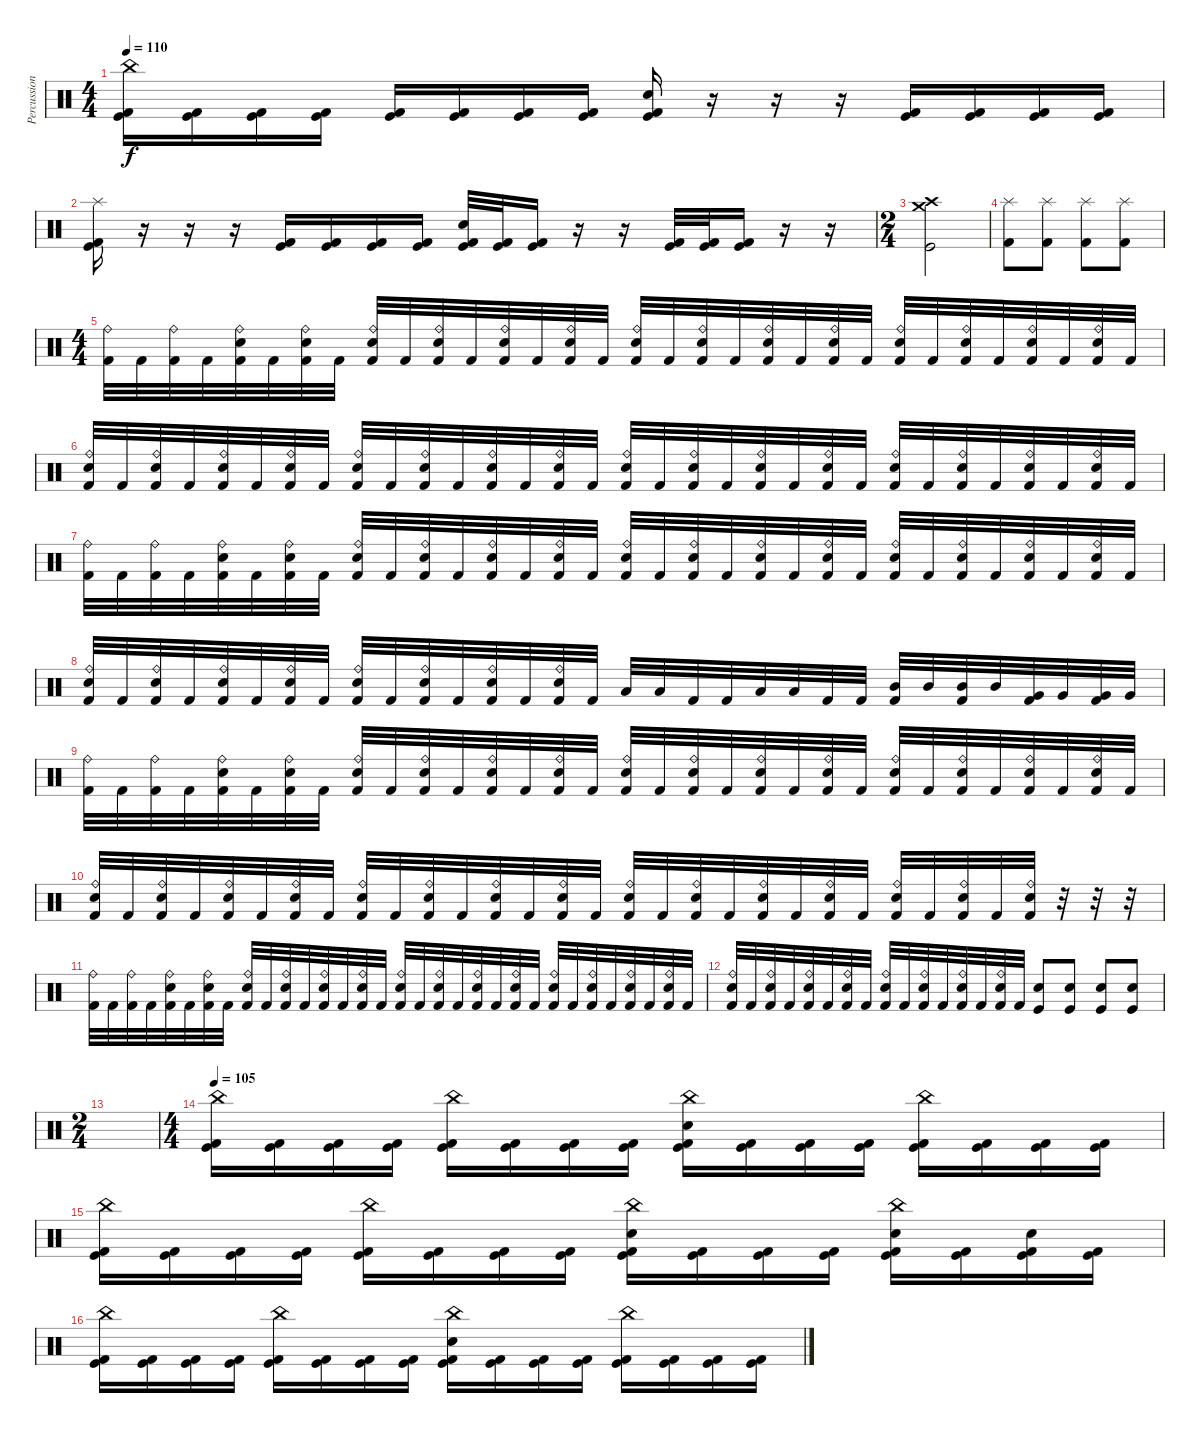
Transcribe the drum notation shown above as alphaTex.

\track ("Percussion" "Percussion") {instrument percussion}
\staff {score}
\articulation defaults
\ts (4 4)
\tempo 110
\clef neutral
\ks c
("China (hit)" "Kick (hit)" "Kick (hit) 2").16{dy f} ("Kick (hit)" "Kick (hit) 2").16 ("Kick (hit)" "Kick (hit) 2").16 ("Kick (hit)" "Kick (hit) 2").16 ("Kick (hit)" "Kick (hit) 2").16 ("Kick (hit)" "Kick (hit) 2").16 ("Kick (hit)" "Kick (hit) 2").16 ("Kick (hit)" "Kick (hit) 2").16 ("Snare (hit) 2" "Kick (hit)" "Kick (hit) 2").16 r.16 r.16 r.16 ("Kick (hit)" "Kick (hit) 2").16 ("Kick (hit)" "Kick (hit) 2").16 ("Kick (hit)" "Kick (hit) 2").16 ("Kick (hit)" "Kick (hit) 2").16 |
("Splash (hit)" "Kick (hit)" "Kick (hit) 2").16 r.16 r.16 r.16 ("Kick (hit)" "Kick (hit) 2").16 ("Kick (hit)" "Kick (hit) 2").16 ("Kick (hit)" "Kick (hit) 2").16 ("Kick (hit)" "Kick (hit) 2").16 ("Kick (hit)" "Snare (hit) 2" "Kick (hit) 2").32 ("Kick (hit)" "Kick (hit) 2").32 ("Kick (hit)" "Kick (hit) 2").16 r.16 r.16 ("Kick (hit)" "Kick (hit) 2").32 ("Kick (hit)" "Kick (hit) 2").32 ("Kick (hit)" "Kick (hit) 2").16 r.16 r.16 |
\ts (2 4)
("Crash medium (hit)" "Crash high (hit)" "Kick (hit)").2 |
("Splash (hit)" "Kick (hit) 2").8 ("Splash (hit)" "Kick (hit) 2").8 ("Splash (hit)" "Kick (hit) 2").8 ("Splash (hit)" "Kick (hit) 2").8 |
\ts (4 4)
("Ride (bell)" "Kick (hit) 2").32 "Kick (hit) 2".32 ("Ride (bell)" "Kick (hit) 2").32 "Kick (hit) 2".32 ("Ride (bell)" "Electric Snare (hit)" "Kick (hit) 2").32 "Kick (hit) 2".32 ("Ride (bell)" "Electric Snare (hit)" "Kick (hit) 2").32 "Kick (hit) 2".32 ("Ride (bell)" "Electric Snare (hit)" "Kick (hit) 2").32 "Kick (hit) 2".32 ("Ride (bell)" "Electric Snare (hit)" "Kick (hit) 2").32 "Kick (hit) 2".32 ("Ride (bell)" "Electric Snare (hit)" "Kick (hit) 2").32 "Kick (hit) 2".32 ("Ride (bell)" "Electric Snare (hit)" "Kick (hit) 2").32 "Kick (hit) 2".32 ("Ride (bell)" "Electric Snare (hit)" "Kick (hit) 2").32 "Kick (hit) 2".32 ("Ride (bell)" "Electric Snare (hit)" "Kick (hit) 2").32 "Kick (hit) 2".32 ("Ride (bell)" "Electric Snare (hit)" "Kick (hit) 2").32 "Kick (hit) 2".32 ("Ride (bell)" "Electric Snare (hit)" "Kick (hit) 2").32 "Kick (hit) 2".32 ("Ride (bell)" "Electric Snare (hit)" "Kick (hit) 2").32 "Kick (hit) 2".32 ("Ride (bell)" "Electric Snare (hit)" "Kick (hit) 2").32 "Kick (hit) 2".32 ("Ride (bell)" "Electric Snare (hit)" "Kick (hit) 2").32 "Kick (hit) 2".32 ("Ride (bell)" "Electric Snare (hit)" "Kick (hit) 2").32 "Kick (hit) 2".32 |
("Ride (bell)" "Electric Snare (hit)" "Kick (hit) 2").32 "Kick (hit) 2".32 ("Ride (bell)" "Electric Snare (hit)" "Kick (hit) 2").32 "Kick (hit) 2".32 ("Ride (bell)" "Electric Snare (hit)" "Kick (hit) 2").32 "Kick (hit) 2".32 ("Ride (bell)" "Electric Snare (hit)" "Kick (hit) 2").32 "Kick (hit) 2".32 ("Ride (bell)" "Electric Snare (hit)" "Kick (hit) 2").32 "Kick (hit) 2".32 ("Ride (bell)" "Electric Snare (hit)" "Kick (hit) 2").32 "Kick (hit) 2".32 ("Ride (bell)" "Electric Snare (hit)" "Kick (hit) 2").32 "Kick (hit) 2".32 ("Ride (bell)" "Electric Snare (hit)" "Kick (hit) 2").32 "Kick (hit) 2".32 ("Ride (bell)" "Electric Snare (hit)" "Kick (hit) 2").32 "Kick (hit) 2".32 ("Ride (bell)" "Electric Snare (hit)" "Kick (hit) 2").32 "Kick (hit) 2".32 ("Ride (bell)" "Electric Snare (hit)" "Kick (hit) 2").32 "Kick (hit) 2".32 ("Ride (bell)" "Electric Snare (hit)" "Kick (hit) 2").32 "Kick (hit) 2".32 ("Ride (bell)" "Electric Snare (hit)" "Kick (hit) 2").32 "Kick (hit) 2".32 ("Ride (bell)" "Electric Snare (hit)" "Kick (hit) 2").32 "Kick (hit) 2".32 ("Ride (bell)" "Electric Snare (hit)" "Kick (hit) 2").32 "Kick (hit) 2".32 ("Ride (bell)" "Electric Snare (hit)" "Kick (hit) 2").32 "Kick (hit) 2".32 |
("Ride (bell)" "Kick (hit) 2").32 "Kick (hit) 2".32 ("Ride (bell)" "Kick (hit) 2").32 "Kick (hit) 2".32 ("Ride (bell)" "Electric Snare (hit)" "Kick (hit) 2").32 "Kick (hit) 2".32 ("Ride (bell)" "Electric Snare (hit)" "Kick (hit) 2").32 "Kick (hit) 2".32 ("Ride (bell)" "Electric Snare (hit)" "Kick (hit) 2").32 "Kick (hit) 2".32 ("Ride (bell)" "Electric Snare (hit)" "Kick (hit) 2").32 "Kick (hit) 2".32 ("Ride (bell)" "Electric Snare (hit)" "Kick (hit) 2").32 "Kick (hit) 2".32 ("Ride (bell)" "Electric Snare (hit)" "Kick (hit) 2").32 "Kick (hit) 2".32 ("Ride (bell)" "Electric Snare (hit)" "Kick (hit) 2").32 "Kick (hit) 2".32 ("Ride (bell)" "Electric Snare (hit)" "Kick (hit) 2").32 "Kick (hit) 2".32 ("Ride (bell)" "Electric Snare (hit)" "Kick (hit) 2").32 "Kick (hit) 2".32 ("Ride (bell)" "Electric Snare (hit)" "Kick (hit) 2").32 "Kick (hit) 2".32 ("Ride (bell)" "Electric Snare (hit)" "Kick (hit) 2").32 "Kick (hit) 2".32 ("Ride (bell)" "Electric Snare (hit)" "Kick (hit) 2").32 "Kick (hit) 2".32 ("Ride (bell)" "Electric Snare (hit)" "Kick (hit) 2").32 "Kick (hit) 2".32 ("Ride (bell)" "Electric Snare (hit)" "Kick (hit) 2").32 "Kick (hit) 2".32 |
("Ride (bell)" "Electric Snare (hit)" "Kick (hit) 2").32 "Kick (hit) 2".32 ("Ride (bell)" "Electric Snare (hit)" "Kick (hit) 2").32 "Kick (hit) 2".32 ("Ride (bell)" "Electric Snare (hit)" "Kick (hit) 2").32 "Kick (hit) 2".32 ("Ride (bell)" "Electric Snare (hit)" "Kick (hit) 2").32 "Kick (hit) 2".32 ("Ride (bell)" "Electric Snare (hit)" "Kick (hit) 2").32 "Kick (hit) 2".32 ("Ride (bell)" "Electric Snare (hit)" "Kick (hit) 2").32 "Kick (hit) 2".32 ("Ride (bell)" "Electric Snare (hit)" "Kick (hit) 2").32 "Kick (hit) 2".32 ("Ride (bell)" "Electric Snare (hit)" "Kick (hit) 2").32 "Kick (hit) 2".32 "Low Tom (hit)".32 "Low Tom (hit)".32 "Kick (hit) 2".32 "Kick (hit) 2".32 "Low Tom (hit)".32 "Low Tom (hit)".32 "Kick (hit) 2".32 "Kick (hit) 2".32 ("Mid Tom (hit)" "Kick (hit) 2").32 "Mid Tom (hit)".32 ("Mid Tom (hit)" "Kick (hit) 2").32 "Mid Tom (hit)".32 ("Very Low Tom (hit)" "Kick (hit) 2").32 "Very Low Tom (hit)".32 ("Very Low Tom (hit)" "Kick (hit) 2").32 "Very Low Tom (hit)".32 |
("Ride (bell)" "Kick (hit) 2").32 "Kick (hit) 2".32 ("Ride (bell)" "Kick (hit) 2").32 "Kick (hit) 2".32 ("Ride (bell)" "Electric Snare (hit)" "Kick (hit) 2").32 "Kick (hit) 2".32 ("Ride (bell)" "Electric Snare (hit)" "Kick (hit) 2").32 "Kick (hit) 2".32 ("Ride (bell)" "Electric Snare (hit)" "Kick (hit) 2").32 "Kick (hit) 2".32 ("Ride (bell)" "Electric Snare (hit)" "Kick (hit) 2").32 "Kick (hit) 2".32 ("Ride (bell)" "Electric Snare (hit)" "Kick (hit) 2").32 "Kick (hit) 2".32 ("Ride (bell)" "Electric Snare (hit)" "Kick (hit) 2").32 "Kick (hit) 2".32 ("Ride (bell)" "Electric Snare (hit)" "Kick (hit) 2").32 "Kick (hit) 2".32 ("Ride (bell)" "Electric Snare (hit)" "Kick (hit) 2").32 "Kick (hit) 2".32 ("Ride (bell)" "Electric Snare (hit)" "Kick (hit) 2").32 "Kick (hit) 2".32 ("Ride (bell)" "Electric Snare (hit)" "Kick (hit) 2").32 "Kick (hit) 2".32 ("Ride (bell)" "Electric Snare (hit)" "Kick (hit) 2").32 "Kick (hit) 2".32 ("Ride (bell)" "Electric Snare (hit)" "Kick (hit) 2").32 "Kick (hit) 2".32 ("Ride (bell)" "Electric Snare (hit)" "Kick (hit) 2").32 "Kick (hit) 2".32 ("Ride (bell)" "Electric Snare (hit)" "Kick (hit) 2").32 "Kick (hit) 2".32 |
("Ride (bell)" "Electric Snare (hit)" "Kick (hit) 2").32 "Kick (hit) 2".32 ("Ride (bell)" "Electric Snare (hit)" "Kick (hit) 2").32 "Kick (hit) 2".32 ("Ride (bell)" "Electric Snare (hit)" "Kick (hit) 2").32 "Kick (hit) 2".32 ("Ride (bell)" "Electric Snare (hit)" "Kick (hit) 2").32 "Kick (hit) 2".32 ("Ride (bell)" "Electric Snare (hit)" "Kick (hit) 2").32 "Kick (hit) 2".32 ("Ride (bell)" "Electric Snare (hit)" "Kick (hit) 2").32 "Kick (hit) 2".32 ("Ride (bell)" "Electric Snare (hit)" "Kick (hit) 2").32 "Kick (hit) 2".32 ("Ride (bell)" "Electric Snare (hit)" "Kick (hit) 2").32 "Kick (hit) 2".32 ("Ride (bell)" "Electric Snare (hit)" "Kick (hit) 2").32 "Kick (hit) 2".32 ("Ride (bell)" "Electric Snare (hit)" "Kick (hit) 2").32 "Kick (hit) 2".32 ("Ride (bell)" "Electric Snare (hit)" "Kick (hit) 2").32 "Kick (hit) 2".32 ("Ride (bell)" "Electric Snare (hit)" "Kick (hit) 2").32 "Kick (hit) 2".32 ("Ride (bell)" "Electric Snare (hit)" "Kick (hit) 2").32 "Kick (hit) 2".32 ("Ride (bell)" "Electric Snare (hit)" "Kick (hit) 2").32 "Kick (hit) 2".32 ("Ride (bell)" "Electric Snare (hit)" "Kick (hit) 2").32 r.32 r.32 r.32 |
("Ride (bell)" "Kick (hit) 2").32 "Kick (hit) 2".32 ("Ride (bell)" "Kick (hit) 2").32 "Kick (hit) 2".32 ("Ride (bell)" "Electric Snare (hit)" "Kick (hit) 2").32 "Kick (hit) 2".32 ("Ride (bell)" "Electric Snare (hit)" "Kick (hit) 2").32 "Kick (hit) 2".32 ("Ride (bell)" "Electric Snare (hit)" "Kick (hit) 2").32 "Kick (hit) 2".32 ("Ride (bell)" "Electric Snare (hit)" "Kick (hit) 2").32 "Kick (hit) 2".32 ("Ride (bell)" "Electric Snare (hit)" "Kick (hit) 2").32 "Kick (hit) 2".32 ("Ride (bell)" "Electric Snare (hit)" "Kick (hit) 2").32 "Kick (hit) 2".32 ("Ride (bell)" "Electric Snare (hit)" "Kick (hit) 2").32 "Kick (hit) 2".32 ("Ride (bell)" "Electric Snare (hit)" "Kick (hit) 2").32 "Kick (hit) 2".32 ("Ride (bell)" "Electric Snare (hit)" "Kick (hit) 2").32 "Kick (hit) 2".32 ("Ride (bell)" "Electric Snare (hit)" "Kick (hit) 2").32 "Kick (hit) 2".32 ("Ride (bell)" "Electric Snare (hit)" "Kick (hit) 2").32 "Kick (hit) 2".32 ("Ride (bell)" "Electric Snare (hit)" "Kick (hit) 2").32 "Kick (hit) 2".32 ("Ride (bell)" "Electric Snare (hit)" "Kick (hit) 2").32 "Kick (hit) 2".32 ("Ride (bell)" "Electric Snare (hit)" "Kick (hit) 2").32 "Kick (hit) 2".32 |
("Ride (bell)" "Electric Snare (hit)" "Kick (hit) 2").32 "Kick (hit) 2".32 ("Ride (bell)" "Electric Snare (hit)" "Kick (hit) 2").32 "Kick (hit) 2".32 ("Ride (bell)" "Electric Snare (hit)" "Kick (hit) 2").32 "Kick (hit) 2".32 ("Ride (bell)" "Electric Snare (hit)" "Kick (hit) 2").32 "Kick (hit) 2".32 ("Ride (bell)" "Electric Snare (hit)" "Kick (hit) 2").32 "Kick (hit) 2".32 ("Ride (bell)" "Electric Snare (hit)" "Kick (hit) 2").32 "Kick (hit) 2".32 ("Ride (bell)" "Electric Snare (hit)" "Kick (hit) 2").32 "Kick (hit) 2".32 ("Ride (bell)" "Electric Snare (hit)" "Kick (hit) 2").32 "Kick (hit) 2".32 ("Electric Snare (hit)" "Kick (hit)").8 ("Electric Snare (hit)" "Kick (hit)").8 ("Electric Snare (hit)" "Kick (hit)").8 ("Electric Snare (hit)" "Kick (hit)").8 |
\ts (2 4)
|
\ts (4 4)
\tempo 105
("China (hit)" "Kick (hit)" "Kick (hit) 2").16 ("Kick (hit)" "Kick (hit) 2").16 ("Kick (hit)" "Kick (hit) 2").16 ("Kick (hit)" "Kick (hit) 2").16 ("China (hit)" "Kick (hit)" "Kick (hit) 2").16 ("Kick (hit)" "Kick (hit) 2").16 ("Kick (hit)" "Kick (hit) 2").16 ("Kick (hit)" "Kick (hit) 2").16 ("Snare (hit) 2" "China (hit)" "Kick (hit)" "Kick (hit) 2").16 ("Kick (hit)" "Kick (hit) 2").16 ("Kick (hit)" "Kick (hit) 2").16 ("Kick (hit)" "Kick (hit) 2").16 ("China (hit)" "Kick (hit)" "Kick (hit) 2").16 ("Kick (hit)" "Kick (hit) 2").16 ("Kick (hit)" "Kick (hit) 2").16 ("Kick (hit)" "Kick (hit) 2").16 |
("China (hit)" "Kick (hit)" "Kick (hit) 2").16 ("Kick (hit)" "Kick (hit) 2").16 ("Kick (hit)" "Kick (hit) 2").16 ("Kick (hit)" "Kick (hit) 2").16 ("China (hit)" "Kick (hit)" "Kick (hit) 2").16 ("Kick (hit)" "Kick (hit) 2").16 ("Kick (hit)" "Kick (hit) 2").16 ("Kick (hit)" "Kick (hit) 2").16 ("Snare (hit) 2" "China (hit)" "Kick (hit)" "Kick (hit) 2").16 ("Kick (hit)" "Kick (hit) 2").16 ("Kick (hit)" "Kick (hit) 2").16 ("Kick (hit)" "Kick (hit) 2").16 ("China (hit)" "Snare (hit) 2" "Kick (hit)" "Kick (hit) 2").16 ("Kick (hit)" "Kick (hit) 2").16 ("Snare (hit) 2" "Kick (hit)" "Kick (hit) 2").16 ("Kick (hit)" "Kick (hit) 2").16 |
("China (hit)" "Kick (hit)" "Kick (hit) 2").16 ("Kick (hit)" "Kick (hit) 2").16 ("Kick (hit)" "Kick (hit) 2").16 ("Kick (hit)" "Kick (hit) 2").16 ("China (hit)" "Kick (hit)" "Kick (hit) 2").16 ("Kick (hit)" "Kick (hit) 2").16 ("Kick (hit)" "Kick (hit) 2").16 ("Kick (hit)" "Kick (hit) 2").16 ("Snare (hit) 2" "China (hit)" "Kick (hit)" "Kick (hit) 2").16 ("Kick (hit)" "Kick (hit) 2").16 ("Kick (hit)" "Kick (hit) 2").16 ("Kick (hit)" "Kick (hit) 2").16 ("China (hit)" "Kick (hit)" "Kick (hit) 2").16 ("Kick (hit)" "Kick (hit) 2").16 ("Kick (hit)" "Kick (hit) 2").16 ("Kick (hit)" "Kick (hit) 2").16
